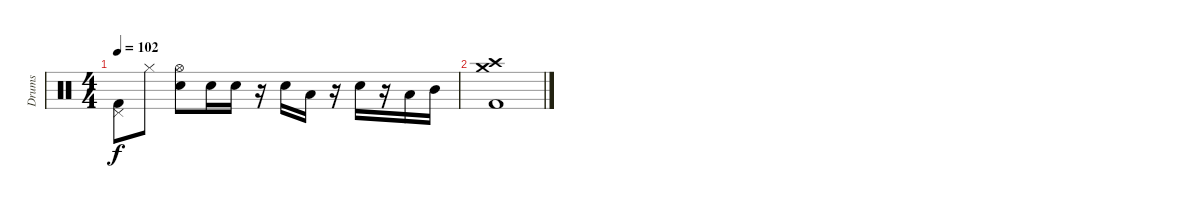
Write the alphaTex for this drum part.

\track ("Drums" "Drums") {instrument percussion}
\staff {score}
\articulation defaults
\ts (4 4)
\tempo 102
\clef neutral
\ks c
("Pedal Hi-Hat (hit)" "Kick (hit) 2").8{dy f} "Hi-Hat (closed)".8 ("Hi-Hat (open)" "Electric Snare (hit)").8 "Electric Snare (hit)".16 "Electric Snare (hit)".16 r.16 "Electric Snare (hit)".16 "Low Tom (hit)".16 r.16 "Electric Snare (hit)".16 r.16 "Low Tom (hit)".16 "Mid Tom (hit)".16 |
("Kick (hit) 2" "Crash medium (hit)" "Crash high (hit)").1
